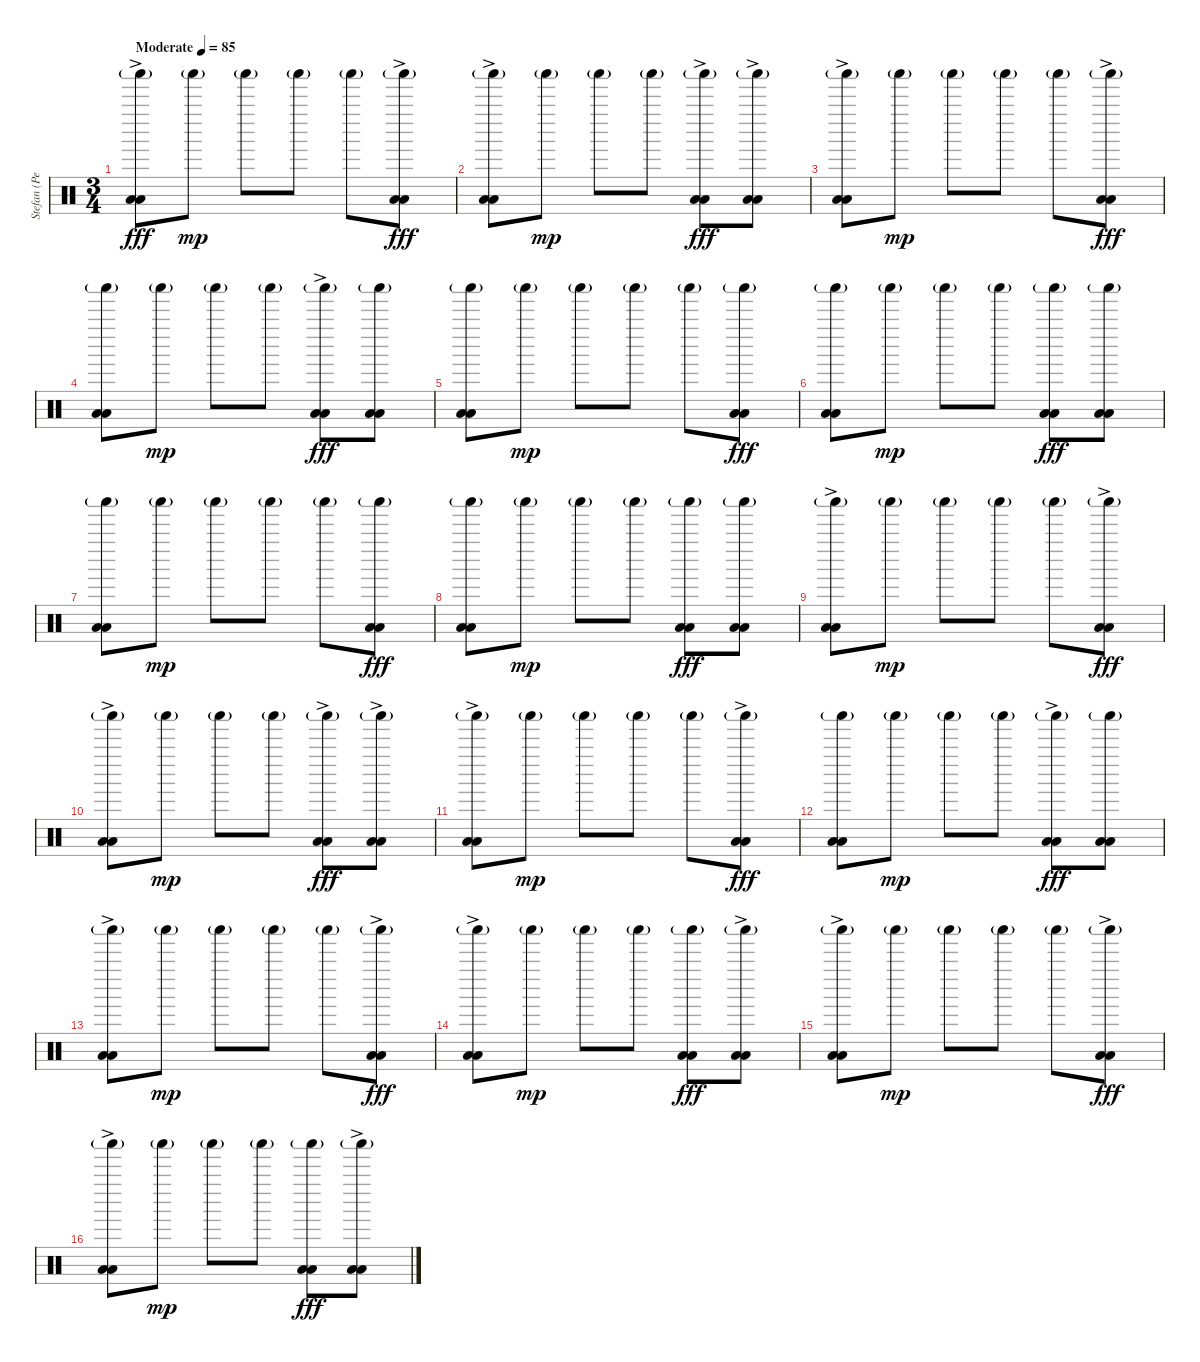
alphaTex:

\track ("Stefan (Percussion)" "Stefan (Pe") {instrument percussion}
\staff {score}
\articulation defaults
\ts (3 4)
\tempo (85 "Moderate")
\clef neutral
\ks c
("Shaker (hit)"{g} "Low Floor Tom (hit)"{ac} "Low Floor Tom (hit)"{ac}).8{dy fff} "Shaker (hit)"{g}.8{dy mp} "Shaker (hit)"{g}.8 "Shaker (hit)"{g}.8 "Shaker (hit)"{g}.8 ("Shaker (hit)"{g} "Low Floor Tom (hit)"{ac} "Low Floor Tom (hit)"{ac}).8{dy fff} |
("Shaker (hit)"{g} "Low Floor Tom (hit)"{ac} "Low Floor Tom (hit)"{ac}).8 "Shaker (hit)"{g}.8{dy mp} "Shaker (hit)"{g}.8 "Shaker (hit)"{g}.8 ("Shaker (hit)"{g} "Low Floor Tom (hit)"{ac} "Low Floor Tom (hit)"{ac}).8{dy fff} ("Shaker (hit)"{g} "Low Floor Tom (hit)"{ac} "Low Floor Tom (hit)"{ac}).8 |
("Shaker (hit)"{g} "Low Floor Tom (hit)"{ac} "Low Floor Tom (hit)"{ac}).8 "Shaker (hit)"{g}.8{dy mp} "Shaker (hit)"{g}.8 "Shaker (hit)"{g}.8 "Shaker (hit)"{g}.8 ("Shaker (hit)"{g} "Low Floor Tom (hit)"{ac} "Low Floor Tom (hit)"{ac}).8{dy fff} |
("Shaker (hit)"{g} "Low Floor Tom (hit)" "Low Floor Tom (hit)").8 "Shaker (hit)"{g}.8{dy mp} "Shaker (hit)"{g}.8 "Shaker (hit)"{g}.8 ("Shaker (hit)"{g} "Low Floor Tom (hit)"{ac} "Low Floor Tom (hit)"{ac}).8{dy fff} ("Shaker (hit)"{g} "Low Floor Tom (hit)" "Low Floor Tom (hit)").8 |
("Shaker (hit)"{g} "Low Floor Tom (hit)" "Low Floor Tom (hit)").8 "Shaker (hit)"{g}.8{dy mp} "Shaker (hit)"{g}.8 "Shaker (hit)"{g}.8 "Shaker (hit)"{g}.8 ("Shaker (hit)"{g} "Low Floor Tom (hit)" "Low Floor Tom (hit)").8{dy fff} |
("Shaker (hit)"{g} "Low Floor Tom (hit)" "Low Floor Tom (hit)").8 "Shaker (hit)"{g}.8{dy mp} "Shaker (hit)"{g}.8 "Shaker (hit)"{g}.8 ("Shaker (hit)"{g} "Low Floor Tom (hit)" "Low Floor Tom (hit)").8{dy fff} ("Shaker (hit)"{g} "Low Floor Tom (hit)" "Low Floor Tom (hit)").8 |
("Shaker (hit)"{g} "Low Floor Tom (hit)" "Low Floor Tom (hit)").8 "Shaker (hit)"{g}.8{dy mp} "Shaker (hit)"{g}.8 "Shaker (hit)"{g}.8 "Shaker (hit)"{g}.8 ("Shaker (hit)"{g} "Low Floor Tom (hit)" "Low Floor Tom (hit)").8{dy fff} |
("Shaker (hit)"{g} "Low Floor Tom (hit)" "Low Floor Tom (hit)").8 "Shaker (hit)"{g}.8{dy mp} "Shaker (hit)"{g}.8 "Shaker (hit)"{g}.8 ("Shaker (hit)"{g} "Low Floor Tom (hit)" "Low Floor Tom (hit)").8{dy fff} ("Shaker (hit)"{g} "Low Floor Tom (hit)" "Low Floor Tom (hit)").8 |
("Shaker (hit)"{g} "Low Floor Tom (hit)"{ac} "Low Floor Tom (hit)"{ac}).8 "Shaker (hit)"{g}.8{dy mp} "Shaker (hit)"{g}.8 "Shaker (hit)"{g}.8 "Shaker (hit)"{g}.8 ("Shaker (hit)"{g} "Low Floor Tom (hit)"{ac} "Low Floor Tom (hit)"{ac}).8{dy fff} |
("Shaker (hit)"{g} "Low Floor Tom (hit)"{ac} "Low Floor Tom (hit)"{ac}).8 "Shaker (hit)"{g}.8{dy mp} "Shaker (hit)"{g}.8 "Shaker (hit)"{g}.8 ("Shaker (hit)"{g} "Low Floor Tom (hit)"{ac} "Low Floor Tom (hit)"{ac}).8{dy fff} ("Shaker (hit)"{g} "Low Floor Tom (hit)"{ac} "Low Floor Tom (hit)"{ac}).8 |
("Shaker (hit)"{g} "Low Floor Tom (hit)"{ac} "Low Floor Tom (hit)"{ac}).8 "Shaker (hit)"{g}.8{dy mp} "Shaker (hit)"{g}.8 "Shaker (hit)"{g}.8 "Shaker (hit)"{g}.8 ("Shaker (hit)"{g} "Low Floor Tom (hit)"{ac} "Low Floor Tom (hit)"{ac}).8{dy fff} |
("Shaker (hit)"{g} "Low Floor Tom (hit)" "Low Floor Tom (hit)").8 "Shaker (hit)"{g}.8{dy mp} "Shaker (hit)"{g}.8 "Shaker (hit)"{g}.8 ("Shaker (hit)"{g} "Low Floor Tom (hit)"{ac} "Low Floor Tom (hit)"{ac}).8{dy fff} ("Shaker (hit)"{g} "Low Floor Tom (hit)" "Low Floor Tom (hit)").8 |
("Shaker (hit)"{g} "Low Floor Tom (hit)"{ac} "Low Floor Tom (hit)"{ac}).8 "Shaker (hit)"{g}.8{dy mp} "Shaker (hit)"{g}.8 "Shaker (hit)"{g}.8 "Shaker (hit)"{g}.8 ("Shaker (hit)"{g} "Low Floor Tom (hit)"{ac} "Low Floor Tom (hit)"{ac}).8{dy fff} |
("Shaker (hit)"{g} "Low Floor Tom (hit)"{ac} "Low Floor Tom (hit)"{ac}).8 "Shaker (hit)"{g}.8{dy mp} "Shaker (hit)"{g}.8 "Shaker (hit)"{g}.8 ("Shaker (hit)"{g} "Low Floor Tom (hit)" "Low Floor Tom (hit)").8{dy fff} ("Shaker (hit)"{g} "Low Floor Tom (hit)"{ac} "Low Floor Tom (hit)"{ac}).8 |
("Shaker (hit)"{g} "Low Floor Tom (hit)"{ac} "Low Floor Tom (hit)"{ac}).8 "Shaker (hit)"{g}.8{dy mp} "Shaker (hit)"{g}.8 "Shaker (hit)"{g}.8 "Shaker (hit)"{g}.8 ("Shaker (hit)"{g} "Low Floor Tom (hit)"{ac} "Low Floor Tom (hit)"{ac}).8{dy fff} |
("Shaker (hit)"{g} "Low Floor Tom (hit)"{ac} "Low Floor Tom (hit)"{ac}).8 "Shaker (hit)"{g}.8{dy mp} "Shaker (hit)"{g}.8 "Shaker (hit)"{g}.8 ("Shaker (hit)"{g} "Low Floor Tom (hit)" "Low Floor Tom (hit)").8{dy fff} ("Shaker (hit)"{g} "Low Floor Tom (hit)"{ac} "Low Floor Tom (hit)"{ac}).8
